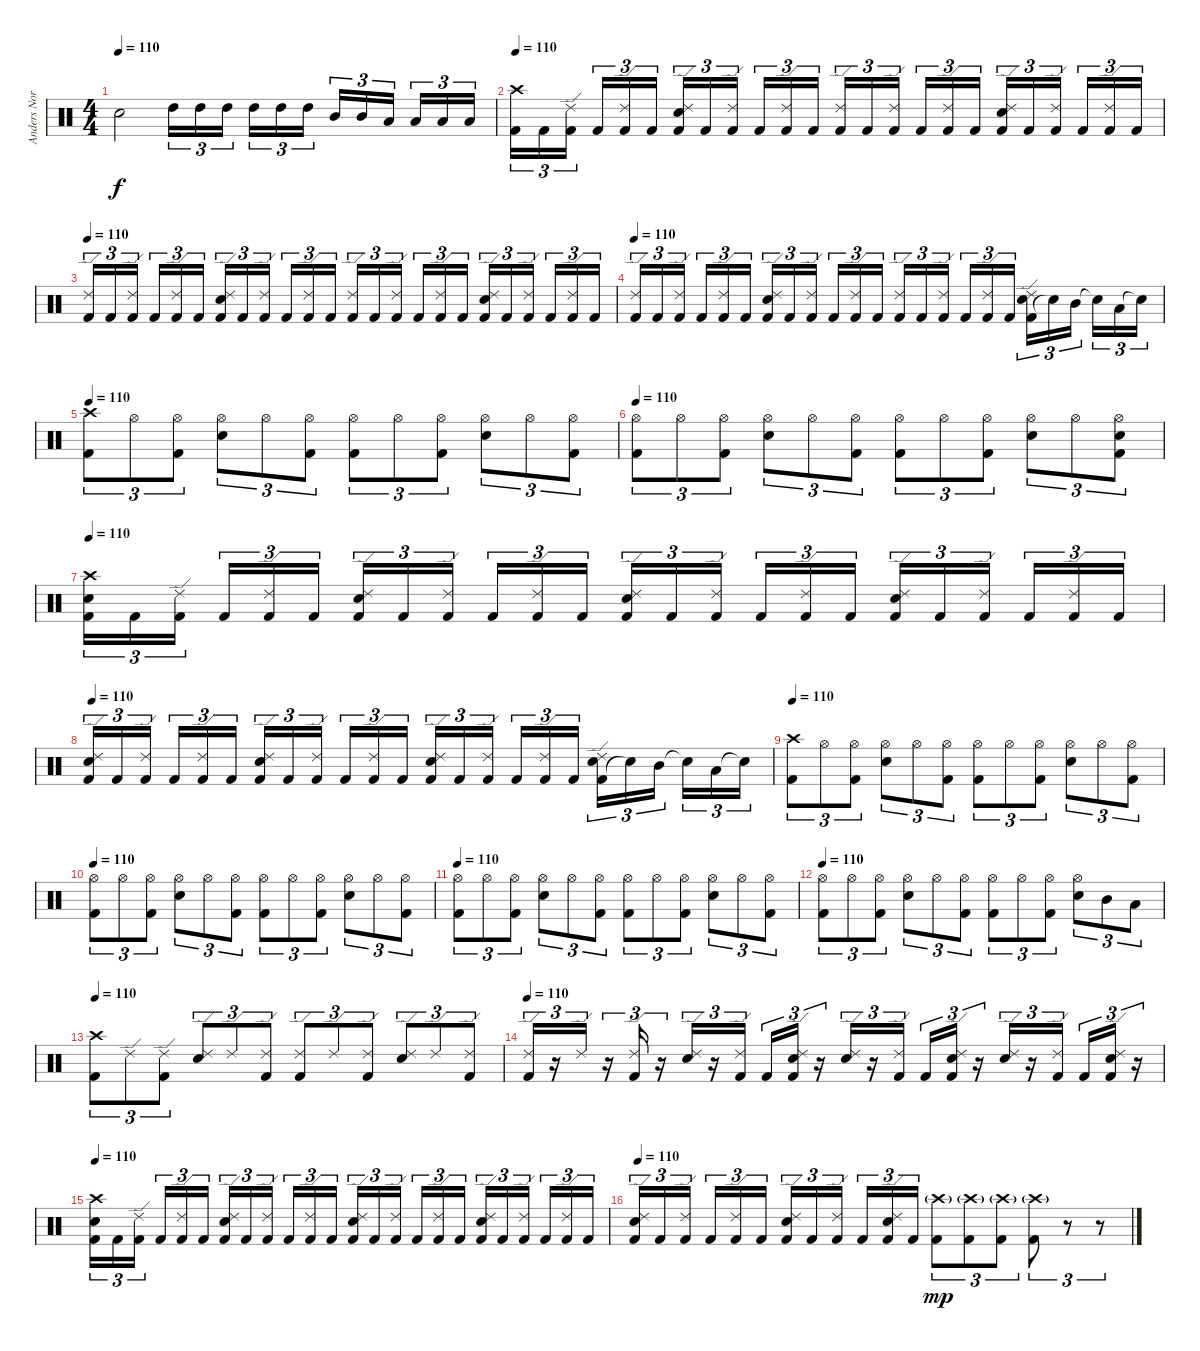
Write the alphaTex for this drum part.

\track ("Anders Nordin" "Anders Nor") {instrument percussion}
\staff {score}
\articulation defaults
\ts (4 4)
\tempo 110
\clef neutral
\ks c "Electric Snare (hit)".2{dy f} "High Tom (hit)".16{tu (3 2)} "High Tom (hit)".16{tu (3 2)} "High Tom (hit)".16{tu (3 2)} "High Tom (hit)".16{tu (3 2)} "High Tom (hit)".16{tu (3 2)} "High Tom (hit)".16{tu (3 2)} "Mid Tom (hit)".16{tu (3 2)} "Mid Tom (hit)".16{tu (3 2)} "Low Tom (hit)".16{tu (3 2)} "Low Tom (hit)".16{tu (3 2)} "Low Tom (hit)".16{tu (3 2)} "Low Tom (hit)".16{tu (3 2)}
|
\tempo 110
("Kick (hit) 2" "Crash high (hit)").16{tu (3 2)} "Kick (hit) 2".16{tu (3 2)} ("Kick (hit) 2" "Ride (edge) 2").16{tu (3 2)} "Kick (hit) 2".16{tu (3 2)} ("Kick (hit) 2" "Ride (edge) 2").16{tu (3 2)} "Kick (hit) 2".16{tu (3 2)} ("Kick (hit) 2" "Electric Snare (hit)" "Ride (edge) 2").16{tu (3 2)} "Kick (hit) 2".16{tu (3 2)} ("Kick (hit) 2" "Ride (edge) 2").16{tu (3 2)} "Kick (hit) 2".16{tu (3 2)} ("Kick (hit) 2" "Ride (edge) 2").16{tu (3 2)} "Kick (hit) 2".16{tu (3 2)} ("Kick (hit) 2" "Ride (edge) 2").16{tu (3 2)} "Kick (hit) 2".16{tu (3 2)} ("Kick (hit) 2" "Ride (edge) 2").16{tu (3 2)} "Kick (hit) 2".16{tu (3 2)} ("Kick (hit) 2" "Ride (edge) 2").16{tu (3 2)} "Kick (hit) 2".16{tu (3 2)} ("Kick (hit) 2" "Electric Snare (hit)" "Ride (edge) 2").16{tu (3 2)} "Kick (hit) 2".16{tu (3 2)} ("Kick (hit) 2" "Ride (edge) 2").16{tu (3 2)} "Kick (hit) 2".16{tu (3 2)} ("Kick (hit) 2" "Ride (edge) 2").16{tu (3 2)} "Kick (hit) 2".16{tu (3 2)} |
\tempo 110
("Kick (hit) 2" "Ride (edge) 2").16{tu (3 2)} "Kick (hit) 2".16{tu (3 2)} ("Kick (hit) 2" "Ride (edge) 2").16{tu (3 2)} "Kick (hit) 2".16{tu (3 2)} ("Kick (hit) 2" "Ride (edge) 2").16{tu (3 2)} "Kick (hit) 2".16{tu (3 2)} ("Kick (hit) 2" "Electric Snare (hit)" "Ride (edge) 2").16{tu (3 2)} "Kick (hit) 2".16{tu (3 2)} ("Kick (hit) 2" "Ride (edge) 2").16{tu (3 2)} "Kick (hit) 2".16{tu (3 2)} ("Kick (hit) 2" "Ride (edge) 2").16{tu (3 2)} "Kick (hit) 2".16{tu (3 2)} ("Kick (hit) 2" "Ride (edge) 2").16{tu (3 2)} "Kick (hit) 2".16{tu (3 2)} ("Kick (hit) 2" "Ride (edge) 2").16{tu (3 2)} "Kick (hit) 2".16{tu (3 2)} ("Kick (hit) 2" "Ride (edge) 2").16{tu (3 2)} "Kick (hit) 2".16{tu (3 2)} ("Kick (hit) 2" "Electric Snare (hit)" "Ride (edge) 2").16{tu (3 2)} "Kick (hit) 2".16{tu (3 2)} ("Kick (hit) 2" "Ride (edge) 2").16{tu (3 2)} "Kick (hit) 2".16{tu (3 2)} ("Kick (hit) 2" "Ride (edge) 2").16{tu (3 2)} "Kick (hit) 2".16{tu (3 2)} |
\tempo 110
("Kick (hit) 2" "Ride (edge) 2").16{tu (3 2)} "Kick (hit) 2".16{tu (3 2)} ("Kick (hit) 2" "Ride (edge) 2").16{tu (3 2)} "Kick (hit) 2".16{tu (3 2)} ("Kick (hit) 2" "Ride (edge) 2").16{tu (3 2)} "Kick (hit) 2".16{tu (3 2)} ("Kick (hit) 2" "Electric Snare (hit)" "Ride (edge) 2").16{tu (3 2)} "Kick (hit) 2".16{tu (3 2)} ("Kick (hit) 2" "Ride (edge) 2").16{tu (3 2)} "Kick (hit) 2".16{tu (3 2)} ("Kick (hit) 2" "Ride (edge) 2").16{tu (3 2)} "Kick (hit) 2".16{tu (3 2)} ("Kick (hit) 2" "Ride (edge) 2").16{tu (3 2)} "Kick (hit) 2".16{tu (3 2)} ("Kick (hit) 2" "Ride (edge) 2").16{tu (3 2)} "Kick (hit) 2".16{tu (3 2)} ("Kick (hit) 2" "Ride (edge) 2").16{tu (3 2)} "Kick (hit) 2".16{tu (3 2)} ("Kick (hit) 2" "Electric Snare (hit)" "Ride (edge) 2").16{tu (3 2)} "Snare (hit)"{t}.16{tu (3 2)} "Mid Tom (hit)".16{tu (3 2)} "Snare (hit)"{t}.16{tu (3 2)} "Low Tom (hit)".16{tu (3 2)} "Snare (hit)"{t}.16{tu (3 2)} |
\tempo 110
("Kick (hit) 2" "Crash high (hit)").8{tu (3 2)} "Hi-Hat (open)".8{tu (3 2)} ("Kick (hit) 2" "Hi-Hat (open)").8{tu (3 2)} ("Electric Snare (hit)" "Hi-Hat (open)").8{tu (3 2)} "Hi-Hat (open)".8{tu (3 2)} ("Kick (hit) 2" "Hi-Hat (open)").8{tu (3 2)} ("Kick (hit) 2" "Hi-Hat (open)").8{tu (3 2)} "Hi-Hat (open)".8{tu (3 2)} ("Kick (hit) 2" "Hi-Hat (open)").8{tu (3 2)} ("Electric Snare (hit)" "Hi-Hat (open)").8{tu (3 2)} "Hi-Hat (open)".8{tu (3 2)} ("Kick (hit) 2" "Hi-Hat (open)").8{tu (3 2)} |
\tempo 110
("Kick (hit) 2" "Hi-Hat (open)").8{tu (3 2)} "Hi-Hat (open)".8{tu (3 2)} ("Kick (hit) 2" "Hi-Hat (open)").8{tu (3 2)} ("Electric Snare (hit)" "Hi-Hat (open)").8{tu (3 2)} "Hi-Hat (open)".8{tu (3 2)} ("Kick (hit) 2" "Hi-Hat (open)").8{tu (3 2)} ("Kick (hit) 2" "Hi-Hat (open)").8{tu (3 2)} "Hi-Hat (open)".8{tu (3 2)} ("Kick (hit) 2" "Hi-Hat (open)").8{tu (3 2)} ("Electric Snare (hit)" "Hi-Hat (open)").8{tu (3 2)} "Hi-Hat (open)".8{tu (3 2)} ("Kick (hit) 2" "Electric Snare (hit)" "Hi-Hat (open)").8{tu (3 2)} |
\tempo 110
("Kick (hit) 2" "Electric Snare (hit)" "Crash high (hit)").16{tu (3 2)} "Kick (hit) 2".16{tu (3 2)} ("Kick (hit) 2" "Ride (edge) 2").16{tu (3 2)} "Kick (hit) 2".16{tu (3 2)} ("Kick (hit) 2" "Ride (edge) 2").16{tu (3 2)} "Kick (hit) 2".16{tu (3 2)} ("Kick (hit) 2" "Electric Snare (hit)" "Ride (edge) 2").16{tu (3 2)} "Kick (hit) 2".16{tu (3 2)} ("Kick (hit) 2" "Ride (edge) 2").16{tu (3 2)} "Kick (hit) 2".16{tu (3 2)} ("Kick (hit) 2" "Ride (edge) 2").16{tu (3 2)} "Kick (hit) 2".16{tu (3 2)} ("Kick (hit) 2" "Electric Snare (hit)" "Ride (edge) 2").16{tu (3 2)} "Kick (hit) 2".16{tu (3 2)} ("Kick (hit) 2" "Ride (edge) 2").16{tu (3 2)} "Kick (hit) 2".16{tu (3 2)} ("Kick (hit) 2" "Ride (edge) 2").16{tu (3 2)} "Kick (hit) 2".16{tu (3 2)} ("Kick (hit) 2" "Electric Snare (hit)" "Ride (edge) 2").16{tu (3 2)} "Kick (hit) 2".16{tu (3 2)} ("Kick (hit) 2" "Ride (edge) 2").16{tu (3 2)} "Kick (hit) 2".16{tu (3 2)} ("Kick (hit) 2" "Ride (edge) 2").16{tu (3 2)} "Kick (hit) 2".16{tu (3 2)} |
\tempo 110
("Kick (hit) 2" "Electric Snare (hit)" "Ride (edge) 2").16{tu (3 2)} "Kick (hit) 2".16{tu (3 2)} ("Kick (hit) 2" "Ride (edge) 2").16{tu (3 2)} "Kick (hit) 2".16{tu (3 2)} ("Kick (hit) 2" "Ride (edge) 2").16{tu (3 2)} "Kick (hit) 2".16{tu (3 2)} ("Kick (hit) 2" "Electric Snare (hit)" "Ride (edge) 2").16{tu (3 2)} "Kick (hit) 2".16{tu (3 2)} ("Kick (hit) 2" "Ride (edge) 2").16{tu (3 2)} "Kick (hit) 2".16{tu (3 2)} ("Kick (hit) 2" "Ride (edge) 2").16{tu (3 2)} "Kick (hit) 2".16{tu (3 2)} ("Kick (hit) 2" "Electric Snare (hit)" "Ride (edge) 2").16{tu (3 2)} "Kick (hit) 2".16{tu (3 2)} ("Kick (hit) 2" "Ride (edge) 2").16{tu (3 2)} "Kick (hit) 2".16{tu (3 2)} ("Kick (hit) 2" "Ride (edge) 2").16{tu (3 2)} "Kick (hit) 2".16{tu (3 2)} ("Kick (hit) 2" "Electric Snare (hit)" "Ride (edge) 2").16{tu (3 2)} "Snare (hit)"{t}.16{tu (3 2)} "Mid Tom (hit)".16{tu (3 2)} "Snare (hit)"{t}.16{tu (3 2)} "Low Tom (hit)".16{tu (3 2)} "Snare (hit)"{t}.16{tu (3 2)} |
\tempo 110
("Kick (hit) 2" "Crash high (hit)").8{tu (3 2)} "Hi-Hat (open)".8{tu (3 2)} ("Kick (hit) 2" "Hi-Hat (open)").8{tu (3 2)} ("Electric Snare (hit)" "Hi-Hat (open)").8{tu (3 2)} "Hi-Hat (open)".8{tu (3 2)} ("Kick (hit) 2" "Hi-Hat (open)").8{tu (3 2)} ("Kick (hit) 2" "Hi-Hat (open)").8{tu (3 2)} "Hi-Hat (open)".8{tu (3 2)} ("Kick (hit) 2" "Hi-Hat (open)").8{tu (3 2)} ("Electric Snare (hit)" "Hi-Hat (open)").8{tu (3 2)} "Hi-Hat (open)".8{tu (3 2)} ("Kick (hit) 2" "Hi-Hat (open)").8{tu (3 2)} |
\tempo 110
("Kick (hit) 2" "Hi-Hat (open)").8{tu (3 2)} "Hi-Hat (open)".8{tu (3 2)} ("Kick (hit) 2" "Hi-Hat (open)").8{tu (3 2)} ("Electric Snare (hit)" "Hi-Hat (open)").8{tu (3 2)} "Hi-Hat (open)".8{tu (3 2)} ("Kick (hit) 2" "Hi-Hat (open)").8{tu (3 2)} ("Kick (hit) 2" "Hi-Hat (open)").8{tu (3 2)} "Hi-Hat (open)".8{tu (3 2)} ("Kick (hit) 2" "Hi-Hat (open)").8{tu (3 2)} ("Electric Snare (hit)" "Hi-Hat (open)").8{tu (3 2)} "Hi-Hat (open)".8{tu (3 2)} ("Kick (hit) 2" "Hi-Hat (open)").8{tu (3 2)} |
\tempo 110
("Kick (hit) 2" "Hi-Hat (open)").8{tu (3 2)} "Hi-Hat (open)".8{tu (3 2)} ("Kick (hit) 2" "Hi-Hat (open)").8{tu (3 2)} ("Electric Snare (hit)" "Hi-Hat (open)").8{tu (3 2)} "Hi-Hat (open)".8{tu (3 2)} ("Kick (hit) 2" "Hi-Hat (open)").8{tu (3 2)} ("Kick (hit) 2" "Hi-Hat (open)").8{tu (3 2)} "Hi-Hat (open)".8{tu (3 2)} ("Kick (hit) 2" "Hi-Hat (open)").8{tu (3 2)} ("Electric Snare (hit)" "Hi-Hat (open)").8{tu (3 2)} "Hi-Hat (open)".8{tu (3 2)} ("Kick (hit) 2" "Hi-Hat (open)").8{tu (3 2)} |
\tempo 110
("Kick (hit) 2" "Hi-Hat (open)").8{tu (3 2)} "Hi-Hat (open)".8{tu (3 2)} ("Kick (hit) 2" "Hi-Hat (open)").8{tu (3 2)} ("Electric Snare (hit)" "Hi-Hat (open)").8{tu (3 2)} "Hi-Hat (open)".8{tu (3 2)} ("Kick (hit) 2" "Hi-Hat (open)").8{tu (3 2)} ("Kick (hit) 2" "Hi-Hat (open)").8{tu (3 2)} "Hi-Hat (open)".8{tu (3 2)} ("Kick (hit) 2" "Hi-Hat (open)").8{tu (3 2)} ("Electric Snare (hit)" "Hi-Hat (open)").8{tu (3 2)} "Mid Tom (hit)".8{tu (3 2)} "Low Tom (hit)".8{tu (3 2)} |
\tempo 110
("Kick (hit) 2" "Crash high (hit)").8{tu (3 2)} "Ride (edge) 2".8{tu (3 2)} ("Kick (hit) 2" "Ride (edge) 2").8{tu (3 2)} ("Electric Snare (hit)" "Ride (edge) 2").8{tu (3 2)} "Ride (edge) 2".8{tu (3 2)} ("Kick (hit) 2" "Ride (edge) 2").8{tu (3 2)} ("Kick (hit) 2" "Ride (edge) 2").8{tu (3 2)} "Ride (edge) 2".8{tu (3 2)} ("Kick (hit) 2" "Ride (edge) 2").8{tu (3 2)} ("Electric Snare (hit)" "Ride (edge) 2").8{tu (3 2)} "Ride (edge) 2".8{tu (3 2)} ("Kick (hit) 2" "Ride (edge) 2").8{tu (3 2)} |
\tempo 110
("Kick (hit) 2" "Ride (edge) 2").16{tu (3 2)} r.16{tu (3 2)} "Ride (edge) 2".16{tu (3 2)} r.16{tu (3 2)} ("Kick (hit) 2" "Ride (edge) 2").16{tu (3 2)} r.16{tu (3 2)} ("Electric Snare (hit)" "Ride (edge) 2").16{tu (3 2)} r.16{tu (3 2)} ("Kick (hit) 2" "Ride (edge) 2").16{tu (3 2)} "Kick (hit) 2".16{tu (3 2)} ("Kick (hit) 2" "Electric Snare (hit)" "Ride (edge) 2").16{tu (3 2)} r.16{tu (3 2)} ("Electric Snare (hit)" "Ride (edge) 2").16{tu (3 2)} r.16{tu (3 2)} ("Kick (hit) 2" "Ride (edge) 2").16{tu (3 2)} "Kick (hit) 2".16{tu (3 2)} ("Kick (hit) 2" "Electric Snare (hit)" "Ride (edge) 2").16{tu (3 2)} r.16{tu (3 2)} ("Electric Snare (hit)" "Ride (edge) 2").16{tu (3 2)} r.16{tu (3 2)} ("Kick (hit) 2" "Ride (edge) 2").16{tu (3 2)} "Kick (hit) 2".16{tu (3 2)} ("Kick (hit) 2" "Electric Snare (hit)" "Ride (edge) 2").16{tu (3 2)} r.16{tu (3 2)} |
\tempo 110
("Kick (hit) 2" "Electric Snare (hit)" "Crash high (hit)").16{tu (3 2)} "Kick (hit) 2".16{tu (3 2)} ("Kick (hit) 2" "Ride (edge) 2").16{tu (3 2)} "Kick (hit) 2".16{tu (3 2)} ("Kick (hit) 2" "Ride (edge) 2").16{tu (3 2)} "Kick (hit) 2".16{tu (3 2)} ("Kick (hit) 2" "Electric Snare (hit)" "Ride (edge) 2").16{tu (3 2)} "Kick (hit) 2".16{tu (3 2)} ("Kick (hit) 2" "Ride (edge) 2").16{tu (3 2)} "Kick (hit) 2".16{tu (3 2)} ("Kick (hit) 2" "Ride (edge) 2").16{tu (3 2)} "Kick (hit) 2".16{tu (3 2)} ("Kick (hit) 2" "Electric Snare (hit)" "Ride (edge) 2").16{tu (3 2)} "Kick (hit) 2".16{tu (3 2)} ("Kick (hit) 2" "Ride (edge) 2").16{tu (3 2)} "Kick (hit) 2".16{tu (3 2)} ("Kick (hit) 2" "Ride (edge) 2").16{tu (3 2)} "Kick (hit) 2".16{tu (3 2)} ("Kick (hit) 2" "Electric Snare (hit)" "Ride (edge) 2").16{tu (3 2)} "Kick (hit) 2".16{tu (3 2)} ("Kick (hit) 2" "Ride (edge) 2").16{tu (3 2)} "Kick (hit) 2".16{tu (3 2)} ("Kick (hit) 2" "Ride (edge) 2").16{tu (3 2)} "Kick (hit) 2".16{tu (3 2)} |
\tempo 110
("Kick (hit) 2" "Electric Snare (hit)" "Ride (edge) 2").16{tu (3 2)} "Kick (hit) 2".16{tu (3 2)} ("Kick (hit) 2" "Ride (edge) 2").16{tu (3 2)} "Kick (hit) 2".16{tu (3 2)} ("Kick (hit) 2" "Ride (edge) 2").16{tu (3 2)} "Kick (hit) 2".16{tu (3 2)} ("Kick (hit) 2" "Electric Snare (hit)" "Ride (edge) 2").16{tu (3 2)} "Kick (hit) 2".16{tu (3 2)} ("Kick (hit) 2" "Ride (edge) 2").16{tu (3 2)} "Kick (hit) 2".16{tu (3 2)} ("Kick (hit) 2" "Electric Snare (hit)" "Ride (edge) 2").16{tu (3 2)} "Kick (hit) 2".16{tu (3 2)} ("Kick (hit) 2" "Crash high (hit)"{g}).8{tu (3 2) dy mp} ("Kick (hit) 2" "Crash high (hit)"{g}).8{tu (3 2)} ("Kick (hit) 2" "Crash high (hit)"{g}).8{tu (3 2)} ("Kick (hit) 2" "Crash high (hit)"{g}).8{tu (3 2)} r.8{tu (3 2)} r.8{tu (3 2)}
